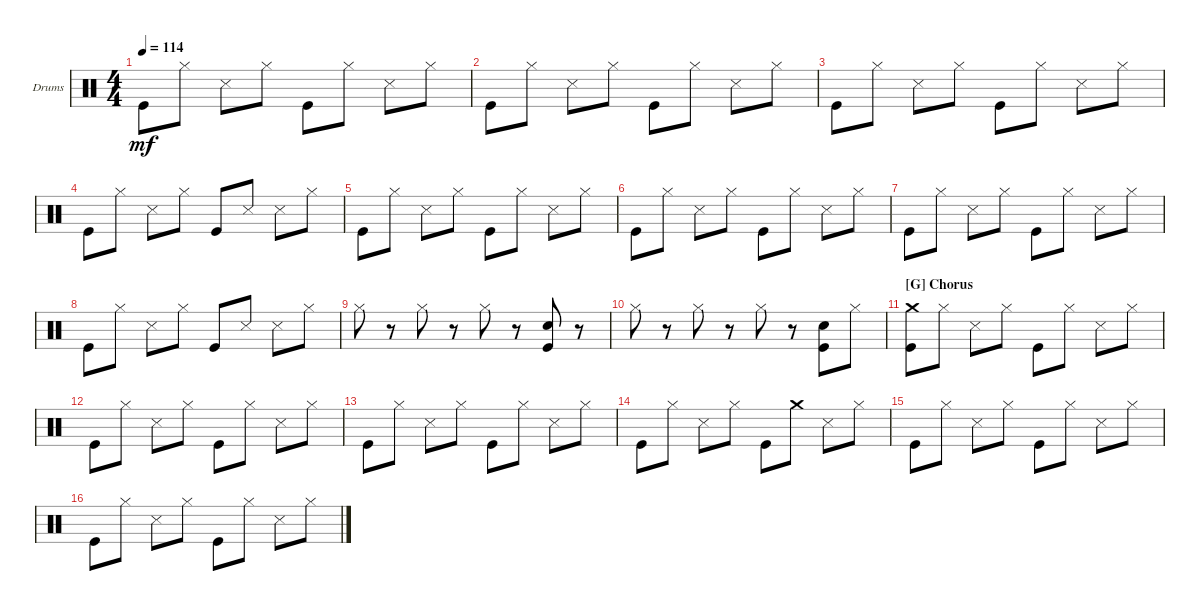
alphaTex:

\defaultSystemsLayout 4
\bracketExtendMode groupsimilarinstruments
\firstSystemTrackNameOrientation horizontal
\otherSystemsTrackNameOrientation horizontal
\track ("Drumkit" "Drums") {instrument percussion}
\staff {score}
\articulation defaults
\ts (4 4)
\tempo 114
\clef neutral
\ks c "Kick (hit)".8{dy mf} "Hi-Hat (closed)".8 "Snare (side stick) 3".8 "Hi-Hat (closed)".8 "Kick (hit)".8 "Hi-Hat (closed)".8 "Snare (side stick) 3".8 "Hi-Hat (closed)".8
|
"Kick (hit)".8 "Hi-Hat (closed)".8 "Snare (side stick) 3".8 "Hi-Hat (closed)".8 "Kick (hit)".8 "Hi-Hat (closed)".8 "Snare (side stick) 3".8 "Hi-Hat (closed)".8 |
"Kick (hit)".8 "Hi-Hat (closed)".8 "Snare (side stick) 3".8 "Hi-Hat (closed)".8 "Kick (hit)".8 "Hi-Hat (closed)".8 "Snare (side stick) 3".8 "Hi-Hat (closed)".8 |
"Kick (hit)".8 "Hi-Hat (closed)".8 "Snare (side stick) 3".8 "Hi-Hat (closed)".8 "Kick (hit)".8 "Snare (side stick) 3".8 "Snare (side stick) 3".8 "Hi-Hat (closed)".8 |
"Kick (hit)".8 "Hi-Hat (closed)".8 "Snare (side stick) 3".8 "Hi-Hat (closed)".8 "Kick (hit)".8 "Hi-Hat (closed)".8 "Snare (side stick) 3".8 "Hi-Hat (closed)".8 |
"Kick (hit)".8 "Hi-Hat (closed)".8 "Snare (side stick) 3".8 "Hi-Hat (closed)".8 "Kick (hit)".8 "Hi-Hat (closed)".8 "Snare (side stick) 3".8 "Hi-Hat (closed)".8 |
"Kick (hit)".8 "Hi-Hat (closed)".8 "Snare (side stick) 3".8 "Hi-Hat (closed)".8 "Kick (hit)".8 "Hi-Hat (closed)".8 "Snare (side stick) 3".8 "Hi-Hat (closed)".8 |
"Kick (hit)".8 "Hi-Hat (closed)".8 "Snare (side stick) 3".8 "Hi-Hat (closed)".8 "Kick (hit)".8 "Snare (side stick) 3".8 "Snare (side stick) 3".8 "Hi-Hat (closed)".8 |
"Hi-Hat (closed)".8 r.8 "Hi-Hat (closed)".8 r.8 "Hi-Hat (closed)".8 r.8 ("Snare (hit) 2" "Kick (hit)").8 r.8 |
"Hi-Hat (closed)".8 r.8 "Hi-Hat (closed)".8 r.8 "Hi-Hat (closed)".8 r.8 ("Snare (hit) 2" "Kick (hit)").8 "Hi-Hat (closed)".8 |
\section ("G" "Chorus")
("Kick (hit)" "Crash medium (hit)").8 "Hi-Hat (closed)".8 "Snare (side stick) 3".8 "Hi-Hat (closed)".8 "Kick (hit)".8 "Hi-Hat (closed)".8 "Snare (side stick) 3".8 "Hi-Hat (closed)".8 |
"Kick (hit)".8 "Hi-Hat (closed)".8 "Snare (side stick) 3".8 "Hi-Hat (closed)".8 "Kick (hit)".8 "Hi-Hat (closed)".8 "Snare (side stick) 3".8 "Hi-Hat (closed)".8 |
"Kick (hit)".8 "Hi-Hat (closed)".8 "Snare (side stick) 3".8 "Hi-Hat (closed)".8 "Kick (hit)".8 "Hi-Hat (closed)".8 "Snare (side stick) 3".8 "Hi-Hat (closed)".8 |
"Kick (hit)".8 "Hi-Hat (closed)".8 "Snare (side stick) 3".8 "Hi-Hat (closed)".8 "Kick (hit)".8 "Crash medium (hit)".8 "Snare (side stick) 3".8 "Hi-Hat (closed)".8 |
"Kick (hit)".8 "Hi-Hat (closed)".8 "Snare (side stick) 3".8 "Hi-Hat (closed)".8 "Kick (hit)".8 "Hi-Hat (closed)".8 "Snare (side stick) 3".8 "Hi-Hat (closed)".8 |
"Kick (hit)".8 "Hi-Hat (closed)".8 "Snare (side stick) 3".8 "Hi-Hat (closed)".8 "Kick (hit)".8 "Hi-Hat (closed)".8 "Snare (side stick) 3".8 "Hi-Hat (closed)".8
